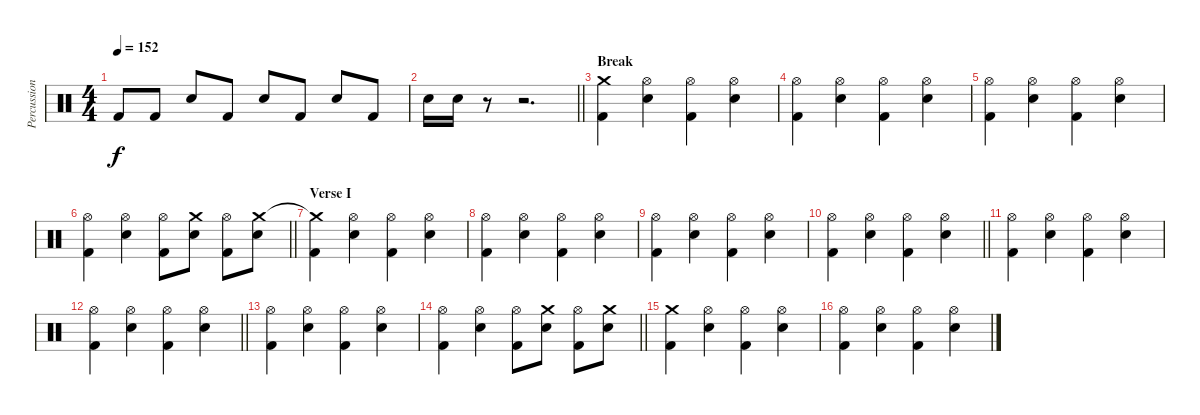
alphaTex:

\track ("Percussion" "Percussion") {instrument percussion}
\staff {score}
\articulation defaults
\ts (4 4)
\tempo 152
\clef neutral
\ks c "Kick (hit) 2".8{dy f} "Kick (hit) 2".8 "Electric Snare (hit)".8 "Kick (hit) 2".8 "Electric Snare (hit)".8 "Kick (hit) 2".8 "Electric Snare (hit)".8 "Kick (hit) 2".8
|
\barLineRight lightlight "Electric Snare (hit)".16 "Electric Snare (hit)".16
r.8 r.2{d} |
\section ("" "Break")
("Crash medium (hit)" "Kick (hit) 2").4 ("Hi-Hat (open)" "Electric Snare (hit)").4 ("Hi-Hat (open)" "Kick (hit) 2").4 ("Hi-Hat (open)" "Electric Snare (hit)").4 |
("Hi-Hat (open)" "Kick (hit) 2").4 ("Hi-Hat (open)" "Electric Snare (hit)").4 ("Hi-Hat (open)" "Kick (hit) 2").4 ("Hi-Hat (open)" "Electric Snare (hit)").4 |
("Hi-Hat (open)" "Kick (hit) 2").4 ("Hi-Hat (open)" "Electric Snare (hit)").4 ("Hi-Hat (open)" "Kick (hit) 2").4 ("Hi-Hat (open)" "Electric Snare (hit)").4 |
\barLineRight lightlight
("Hi-Hat (open)" "Kick (hit) 2").4 ("Hi-Hat (open)" "Electric Snare (hit)").4 ("Hi-Hat (open)" "Kick (hit) 2").8 ("Crash medium (hit)" "Electric Snare (hit)").8 ("Hi-Hat (open)" "Kick (hit) 2").8 ("Crash medium (hit)" "Electric Snare (hit)").8 |
\section ("" "Verse I")
("Crash medium (hit)"{t} "Kick (hit) 2").4 ("Hi-Hat (open)" "Electric Snare (hit)").4 ("Hi-Hat (open)" "Kick (hit) 2").4 ("Hi-Hat (open)" "Electric Snare (hit)").4 |
("Hi-Hat (open)" "Kick (hit) 2").4 ("Hi-Hat (open)" "Electric Snare (hit)").4 ("Hi-Hat (open)" "Kick (hit) 2").4 ("Hi-Hat (open)" "Electric Snare (hit)").4 |
("Hi-Hat (open)" "Kick (hit) 2").4 ("Hi-Hat (open)" "Electric Snare (hit)").4 ("Hi-Hat (open)" "Kick (hit) 2").4 ("Hi-Hat (open)" "Electric Snare (hit)").4 |
\barLineRight lightlight
("Hi-Hat (open)" "Kick (hit) 2").4 ("Hi-Hat (open)" "Electric Snare (hit)").4 ("Hi-Hat (open)" "Kick (hit) 2").4 ("Hi-Hat (open)" "Electric Snare (hit)").4 |
("Hi-Hat (open)" "Kick (hit) 2").4 ("Hi-Hat (open)" "Electric Snare (hit)").4 ("Hi-Hat (open)" "Kick (hit) 2").4 ("Hi-Hat (open)" "Electric Snare (hit)").4 |
\barLineRight lightlight
("Hi-Hat (open)" "Kick (hit) 2").4 ("Hi-Hat (open)" "Electric Snare (hit)").4 ("Hi-Hat (open)" "Kick (hit) 2").4 ("Hi-Hat (open)" "Electric Snare (hit)").4 |
("Hi-Hat (open)" "Kick (hit) 2").4 ("Hi-Hat (open)" "Electric Snare (hit)").4 ("Hi-Hat (open)" "Kick (hit) 2").4 ("Hi-Hat (open)" "Electric Snare (hit)").4 |
\barLineRight lightlight
("Hi-Hat (open)" "Kick (hit) 2").4 ("Hi-Hat (open)" "Electric Snare (hit)").4 ("Hi-Hat (open)" "Kick (hit) 2").8 ("Crash medium (hit)" "Electric Snare (hit)").8 ("Hi-Hat (open)" "Kick (hit) 2").8 ("Crash medium (hit)" "Electric Snare (hit)").8 |
("Crash medium (hit)" "Kick (hit) 2").4 ("Hi-Hat (open)" "Electric Snare (hit)").4 ("Hi-Hat (open)" "Kick (hit) 2").4 ("Hi-Hat (open)" "Electric Snare (hit)").4 |
("Hi-Hat (open)" "Kick (hit) 2").4 ("Hi-Hat (open)" "Electric Snare (hit)").4 ("Hi-Hat (open)" "Kick (hit) 2").4 ("Hi-Hat (open)" "Electric Snare (hit)").4
